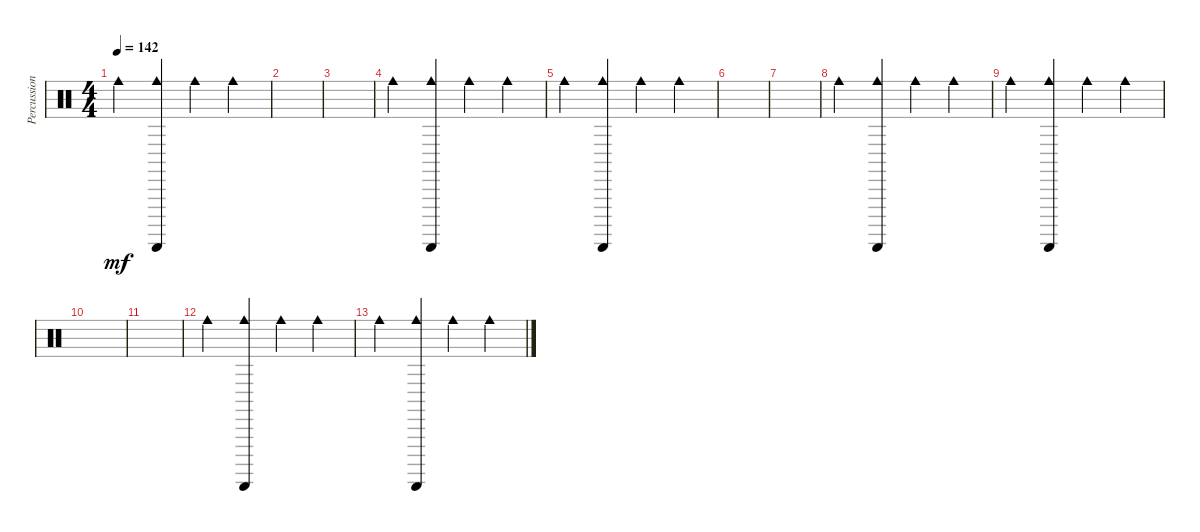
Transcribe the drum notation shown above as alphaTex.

\track ("Percussion" "Percussion") {instrument percussion}
\staff {score}
\articulation defaults
\ts (4 4)
\tempo 142
\clef neutral
\ks c "Cowbell medium (hit)".4{dy mf}
("Guiro (scrap-return)" "Cowbell medium (hit)").4 "Cowbell medium (hit)".4 "Cowbell medium (hit)".4 |
|
|
"Cowbell medium (hit)".4 ("Guiro (scrap-return)" "Cowbell medium (hit)").4 "Cowbell medium (hit)".4 "Cowbell medium (hit)".4 |
"Cowbell medium (hit)".4 ("Guiro (scrap-return)" "Cowbell medium (hit)").4 "Cowbell medium (hit)".4 "Cowbell medium (hit)".4 |
|
|
"Cowbell medium (hit)".4 ("Guiro (scrap-return)" "Cowbell medium (hit)").4 "Cowbell medium (hit)".4 "Cowbell medium (hit)".4 |
"Cowbell medium (hit)".4 ("Guiro (scrap-return)" "Cowbell medium (hit)").4 "Cowbell medium (hit)".4 "Cowbell medium (hit)".4 |
|
|
"Cowbell medium (hit)".4 ("Guiro (scrap-return)" "Cowbell medium (hit)").4 "Cowbell medium (hit)".4 "Cowbell medium (hit)".4 |
"Cowbell medium (hit)".4 ("Guiro (scrap-return)" "Cowbell medium (hit)").4 "Cowbell medium (hit)".4 "Cowbell medium (hit)".4
